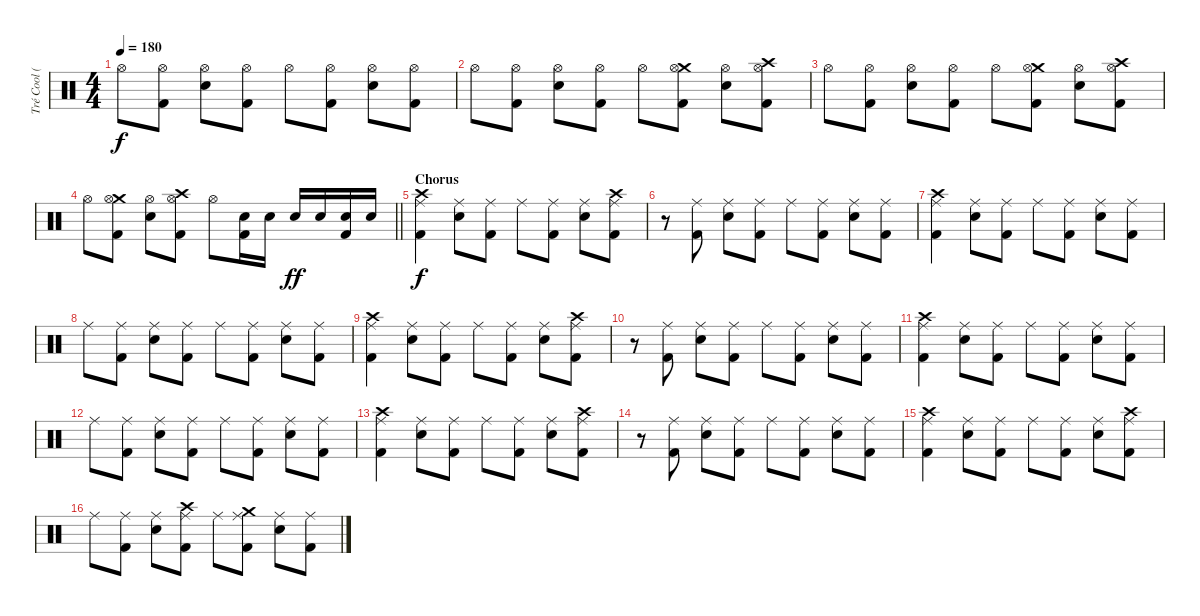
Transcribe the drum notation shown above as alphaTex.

\track ("Tré Cool (Drums)" "Tré Cool (") {instrument percussion}
\staff {score}
\articulation defaults
\ts (4 4)
\tempo 180
\clef neutral
\ks c "Hi-Hat (open)".8{dy f}
("Hi-Hat (open)" "Kick (hit) 2").8 ("Hi-Hat (open)" "Electric Snare (hit)").8 ("Hi-Hat (open)" "Kick (hit) 2").8 "Hi-Hat (open)".8 ("Hi-Hat (open)" "Kick (hit) 2").8 ("Hi-Hat (open)" "Electric Snare (hit)").8 ("Hi-Hat (open)" "Kick (hit) 2").8 |
"Hi-Hat (open)".8 ("Hi-Hat (open)" "Kick (hit) 2").8 ("Hi-Hat (open)" "Electric Snare (hit)").8 ("Hi-Hat (open)" "Kick (hit) 2").8 "Hi-Hat (open)".8 ("Crash medium (hit)" "Hi-Hat (open)" "Kick (hit) 2").8 ("Hi-Hat (open)" "Electric Snare (hit)").8 ("Crash high (hit)" "Hi-Hat (open)" "Kick (hit) 2").8 |
"Hi-Hat (open)".8 ("Hi-Hat (open)" "Kick (hit) 2").8 ("Hi-Hat (open)" "Electric Snare (hit)").8 ("Hi-Hat (open)" "Kick (hit) 2").8 "Hi-Hat (open)".8 ("Crash medium (hit)" "Hi-Hat (open)" "Kick (hit) 2").8 ("Hi-Hat (open)" "Electric Snare (hit)").8 ("Crash high (hit)" "Hi-Hat (open)" "Kick (hit) 2").8 |
\barLineRight lightlight "Hi-Hat (open)".8
("Crash medium (hit)" "Hi-Hat (open)" "Kick (hit) 2").8 ("Hi-Hat (open)" "Electric Snare (hit)").8 ("Crash high (hit)" "Hi-Hat (open)" "Kick (hit) 2").8 "Hi-Hat (open)".8 ("Electric Snare (hit)" "Kick (hit) 2").16 "Electric Snare (hit)".16 "Electric Snare (hit)".16{dy ff} "Electric Snare (hit)".16 ("Electric Snare (hit)" "Kick (hit) 2").16 "Electric Snare (hit)".16 |
\section ("" "Chorus")
("Crash high (hit)" "Ride (middle)" "Kick (hit) 2").4{dy f} ("Ride (middle)" "Electric Snare (hit)").8 ("Ride (middle)" "Kick (hit) 2").8 "Ride (middle)".8 ("Ride (middle)" "Kick (hit) 2").8 ("Ride (middle)" "Electric Snare (hit)").8 ("Crash high (hit)" "Ride (middle)" "Kick (hit) 2").8 |
r.8 ("Ride (middle)" "Kick (hit) 2").8 ("Ride (middle)" "Electric Snare (hit)").8 ("Ride (middle)" "Kick (hit) 2").8 "Ride (middle)".8 ("Ride (middle)" "Kick (hit) 2").8 ("Ride (middle)" "Electric Snare (hit)").8 ("Ride (middle)" "Kick (hit) 2").8 |
("Crash high (hit)" "Ride (middle)" "Kick (hit) 2").4 ("Ride (middle)" "Electric Snare (hit)").8 ("Ride (middle)" "Kick (hit) 2").8 "Ride (middle)".8 ("Ride (middle)" "Kick (hit) 2").8 ("Ride (middle)" "Electric Snare (hit)").8 ("Ride (middle)" "Kick (hit) 2").8 |
"Ride (middle)".8 ("Ride (middle)" "Kick (hit) 2").8 ("Ride (middle)" "Electric Snare (hit)").8 ("Ride (middle)" "Kick (hit) 2").8 "Ride (middle)".8 ("Ride (middle)" "Kick (hit) 2").8 ("Ride (middle)" "Electric Snare (hit)").8 ("Ride (middle)" "Kick (hit) 2").8 |
("Crash high (hit)" "Ride (middle)" "Kick (hit) 2").4 ("Ride (middle)" "Electric Snare (hit)").8 ("Ride (middle)" "Kick (hit) 2").8 "Ride (middle)".8 ("Ride (middle)" "Kick (hit) 2").8 ("Ride (middle)" "Electric Snare (hit)").8 ("Crash high (hit)" "Ride (middle)" "Kick (hit) 2").8 |
r.8 ("Ride (middle)" "Kick (hit) 2").8 ("Ride (middle)" "Electric Snare (hit)").8 ("Ride (middle)" "Kick (hit) 2").8 "Ride (middle)".8 ("Ride (middle)" "Kick (hit) 2").8 ("Ride (middle)" "Electric Snare (hit)").8 ("Ride (middle)" "Kick (hit) 2").8 |
("Crash high (hit)" "Ride (middle)" "Kick (hit) 2").4 ("Ride (middle)" "Electric Snare (hit)").8 ("Ride (middle)" "Kick (hit) 2").8 "Ride (middle)".8 ("Ride (middle)" "Kick (hit) 2").8 ("Ride (middle)" "Electric Snare (hit)").8 ("Ride (middle)" "Kick (hit) 2").8 |
"Ride (middle)".8 ("Ride (middle)" "Kick (hit) 2").8 ("Ride (middle)" "Electric Snare (hit)").8 ("Ride (middle)" "Kick (hit) 2").8 "Ride (middle)".8 ("Ride (middle)" "Kick (hit) 2").8 ("Ride (middle)" "Electric Snare (hit)").8 ("Ride (middle)" "Kick (hit) 2").8 |
("Crash high (hit)" "Ride (middle)" "Kick (hit) 2").4 ("Ride (middle)" "Electric Snare (hit)").8 ("Ride (middle)" "Kick (hit) 2").8 "Ride (middle)".8 ("Ride (middle)" "Kick (hit) 2").8 ("Ride (middle)" "Electric Snare (hit)").8 ("Crash high (hit)" "Ride (middle)" "Kick (hit) 2").8 |
r.8 ("Ride (middle)" "Kick (hit) 2").8 ("Ride (middle)" "Electric Snare (hit)").8 ("Ride (middle)" "Kick (hit) 2").8 "Ride (middle)".8 ("Ride (middle)" "Kick (hit) 2").8 ("Ride (middle)" "Electric Snare (hit)").8 ("Ride (middle)" "Kick (hit) 2").8 |
("Crash high (hit)" "Ride (middle)" "Kick (hit) 2").4 ("Ride (middle)" "Electric Snare (hit)").8 ("Ride (middle)" "Kick (hit) 2").8 "Ride (middle)".8 ("Ride (middle)" "Kick (hit) 2").8 ("Ride (middle)" "Electric Snare (hit)").8 ("Crash high (hit)" "Ride (middle)" "Kick (hit) 2").8 |
"Ride (middle)".8 ("Ride (middle)" "Kick (hit) 2").8 ("Ride (middle)" "Electric Snare (hit)").8 ("Crash high (hit)" "Ride (middle)" "Kick (hit) 2").8 "Ride (middle)".8 ("Crash medium (hit)" "Ride (middle)" "Kick (hit) 2").8 ("Ride (middle)" "Electric Snare (hit)").8 ("Ride (middle)" "Kick (hit) 2").8
